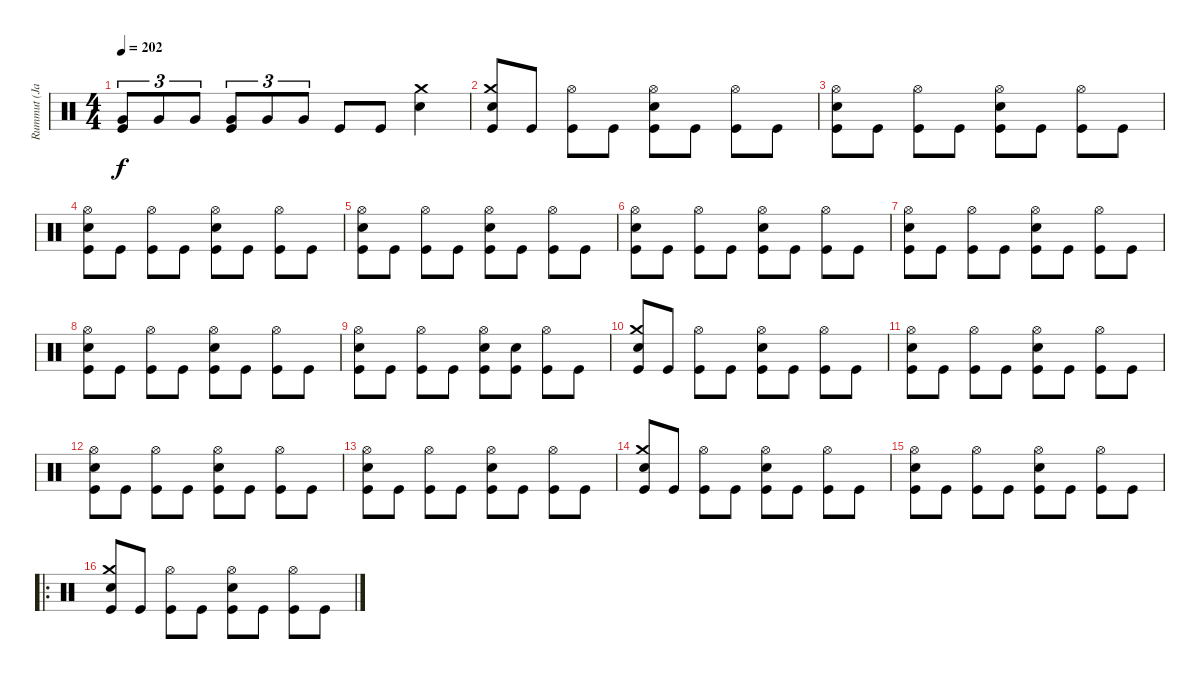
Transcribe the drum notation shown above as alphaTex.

\track ("Rummut (Janne)" "Rummut (Ja") {instrument percussion}
\staff {score}
\articulation defaults
\ts (4 4)
\tempo 202
\clef neutral
\ks c
("Very Low Tom (hit)" "Kick (hit)").8{tu (3 2) dy f} "Very Low Tom (hit)".8{tu (3 2)} "Very Low Tom (hit)".8{tu (3 2)} ("Very Low Tom (hit)" "Kick (hit)").8{tu (3 2)} "Very Low Tom (hit)".8{tu (3 2)} "Very Low Tom (hit)".8{tu (3 2)} "Kick (hit)".8 "Kick (hit)".8 ("Crash medium (hit)" "Snare (hit) 2").4 |
("Crash medium (hit)" "Snare (hit) 2" "Kick (hit)").8 "Kick (hit)".8 ("Hi-Hat (open)" "Kick (hit)").8 "Kick (hit)".8 ("Hi-Hat (open)" "Snare (hit) 2" "Kick (hit)").8 "Kick (hit)".8 ("Hi-Hat (open)" "Kick (hit)").8 "Kick (hit)".8 |
("Hi-Hat (open)" "Snare (hit) 2" "Kick (hit)").8 "Kick (hit)".8 ("Hi-Hat (open)" "Kick (hit)").8 "Kick (hit)".8 ("Hi-Hat (open)" "Snare (hit) 2" "Kick (hit)").8 "Kick (hit)".8 ("Hi-Hat (open)" "Kick (hit)").8 "Kick (hit)".8 |
("Hi-Hat (open)" "Snare (hit) 2" "Kick (hit)").8 "Kick (hit)".8 ("Hi-Hat (open)" "Kick (hit)").8 "Kick (hit)".8 ("Hi-Hat (open)" "Snare (hit) 2" "Kick (hit)").8 "Kick (hit)".8 ("Hi-Hat (open)" "Kick (hit)").8 "Kick (hit)".8 |
("Hi-Hat (open)" "Snare (hit) 2" "Kick (hit)").8 "Kick (hit)".8 ("Hi-Hat (open)" "Kick (hit)").8 "Kick (hit)".8 ("Hi-Hat (open)" "Snare (hit) 2" "Kick (hit)").8 "Kick (hit)".8 ("Hi-Hat (open)" "Kick (hit)").8 "Kick (hit)".8 |
("Hi-Hat (open)" "Snare (hit) 2" "Kick (hit)").8 "Kick (hit)".8 ("Hi-Hat (open)" "Kick (hit)").8 "Kick (hit)".8 ("Hi-Hat (open)" "Snare (hit) 2" "Kick (hit)").8 "Kick (hit)".8 ("Hi-Hat (open)" "Kick (hit)").8 "Kick (hit)".8 |
("Hi-Hat (open)" "Snare (hit) 2" "Kick (hit)").8 "Kick (hit)".8 ("Hi-Hat (open)" "Kick (hit)").8 "Kick (hit)".8 ("Hi-Hat (open)" "Snare (hit) 2" "Kick (hit)").8 "Kick (hit)".8 ("Hi-Hat (open)" "Kick (hit)").8 "Kick (hit)".8 |
("Hi-Hat (open)" "Snare (hit) 2" "Kick (hit)").8 "Kick (hit)".8 ("Hi-Hat (open)" "Kick (hit)").8 "Kick (hit)".8 ("Hi-Hat (open)" "Snare (hit) 2" "Kick (hit)").8 "Kick (hit)".8 ("Hi-Hat (open)" "Kick (hit)").8 "Kick (hit)".8 |
("Hi-Hat (open)" "Snare (hit) 2" "Kick (hit)").8 "Kick (hit)".8 ("Hi-Hat (open)" "Kick (hit)").8 "Kick (hit)".8 ("Hi-Hat (open)" "Snare (hit) 2" "Kick (hit)").8 ("Snare (hit) 2" "Kick (hit)").8 ("Hi-Hat (open)" "Kick (hit)").8 "Kick (hit)".8 |
("Crash medium (hit)" "Snare (hit) 2" "Kick (hit)").8 "Kick (hit)".8 ("Hi-Hat (open)" "Kick (hit)").8 "Kick (hit)".8 ("Hi-Hat (open)" "Snare (hit) 2" "Kick (hit)").8 "Kick (hit)".8 ("Hi-Hat (open)" "Kick (hit)").8 "Kick (hit)".8 |
("Hi-Hat (open)" "Snare (hit) 2" "Kick (hit)").8 "Kick (hit)".8 ("Hi-Hat (open)" "Kick (hit)").8 "Kick (hit)".8 ("Hi-Hat (open)" "Snare (hit) 2" "Kick (hit)").8 "Kick (hit)".8 ("Hi-Hat (open)" "Kick (hit)").8 "Kick (hit)".8 |
("Hi-Hat (open)" "Snare (hit) 2" "Kick (hit)").8 "Kick (hit)".8 ("Hi-Hat (open)" "Kick (hit)").8 "Kick (hit)".8 ("Hi-Hat (open)" "Snare (hit) 2" "Kick (hit)").8 "Kick (hit)".8 ("Hi-Hat (open)" "Kick (hit)").8 "Kick (hit)".8 |
("Hi-Hat (open)" "Snare (hit) 2" "Kick (hit)").8 "Kick (hit)".8 ("Hi-Hat (open)" "Kick (hit)").8 "Kick (hit)".8 ("Hi-Hat (open)" "Snare (hit) 2" "Kick (hit)").8 "Kick (hit)".8 ("Hi-Hat (open)" "Kick (hit)").8 "Kick (hit)".8 |
("Crash medium (hit)" "Snare (hit) 2" "Kick (hit)").8 "Kick (hit)".8 ("Hi-Hat (open)" "Kick (hit)").8 "Kick (hit)".8 ("Hi-Hat (open)" "Snare (hit) 2" "Kick (hit)").8 "Kick (hit)".8 ("Hi-Hat (open)" "Kick (hit)").8 "Kick (hit)".8 |
("Hi-Hat (open)" "Snare (hit) 2" "Kick (hit)").8 "Kick (hit)".8 ("Hi-Hat (open)" "Kick (hit)").8 "Kick (hit)".8 ("Hi-Hat (open)" "Snare (hit) 2" "Kick (hit)").8 "Kick (hit)".8 ("Hi-Hat (open)" "Kick (hit)").8 "Kick (hit)".8 |
\ro
("Crash medium (hit)" "Snare (hit) 2" "Kick (hit)").8 "Kick (hit)".8 ("Hi-Hat (open)" "Kick (hit)").8 "Kick (hit)".8 ("Hi-Hat (open)" "Snare (hit) 2" "Kick (hit)").8 "Kick (hit)".8 ("Hi-Hat (open)" "Kick (hit)").8 "Kick (hit)".8
